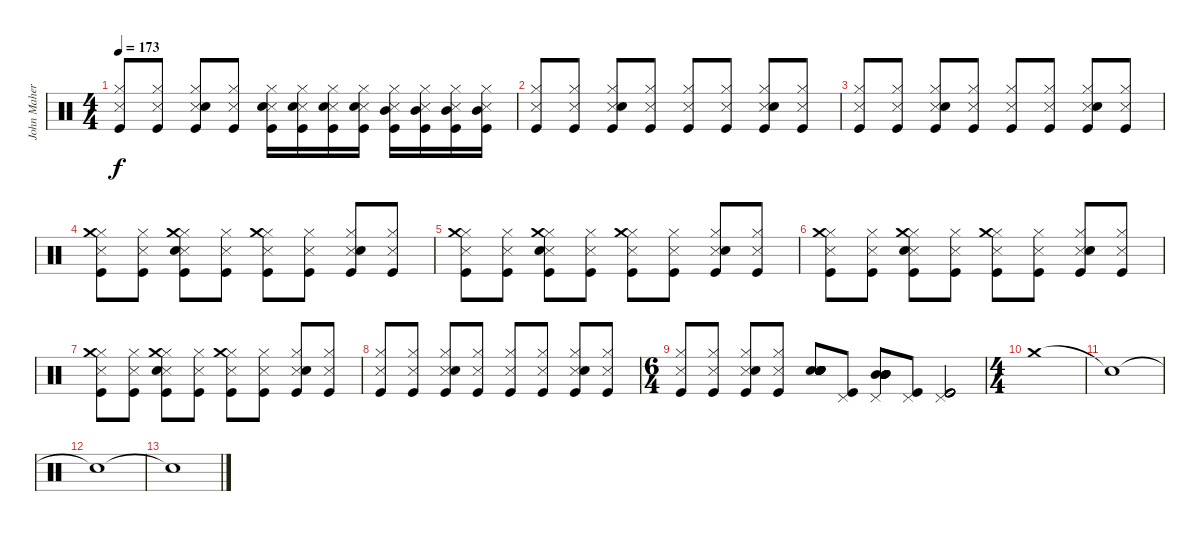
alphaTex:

\track ("John Maher" "John Maher") {instrument percussion}
\staff {score}
\articulation defaults
\ts (4 4)
\tempo 173
\clef neutral
\ks c
("Snare (side stick) 3" "Hi-Hat (closed)" "Kick (hit)").8{dy f} ("Snare (side stick) 3" "Hi-Hat (closed)" "Kick (hit)").8 ("Snare (side stick) 3" "Hi-Hat (closed)" "Snare (hit) 2" "Kick (hit)").8 ("Snare (side stick) 3" "Hi-Hat (closed)" "Kick (hit)").8 ("Snare (side stick) 3" "Hi-Hat (closed)" "Snare (hit) 2" "Kick (hit)").16 ("Snare (side stick) 3" "Hi-Hat (closed)" "Snare (hit) 2" "Kick (hit)").16 ("Snare (side stick) 3" "Hi-Hat (closed)" "Snare (hit) 2" "Kick (hit)").16 ("Snare (side stick) 3" "Hi-Hat (closed)" "Snare (hit) 2" "Kick (hit)").16 ("Snare (side stick) 3" "Hi-Hat (closed)" "Mid Tom (hit)" "Kick (hit)").16 ("Snare (side stick) 3" "Hi-Hat (closed)" "Mid Tom (hit)" "Kick (hit)").16 ("Snare (side stick) 3" "Hi-Hat (closed)" "Mid Tom (hit)" "Kick (hit)").16 ("Snare (side stick) 3" "Hi-Hat (closed)" "Mid Tom (hit)" "Kick (hit)").16 |
("Snare (side stick) 3" "Hi-Hat (closed)" "Kick (hit)").8 ("Snare (side stick) 3" "Hi-Hat (closed)" "Kick (hit)").8 ("Snare (side stick) 3" "Hi-Hat (closed)" "Snare (hit) 2" "Kick (hit)").8 ("Snare (side stick) 3" "Hi-Hat (closed)" "Kick (hit)").8 ("Snare (side stick) 3" "Hi-Hat (closed)" "Kick (hit)").8 ("Snare (side stick) 3" "Hi-Hat (closed)" "Kick (hit)").8 ("Snare (side stick) 3" "Hi-Hat (closed)" "Snare (hit) 2" "Kick (hit)").8 ("Snare (side stick) 3" "Hi-Hat (closed)" "Kick (hit)").8 |
("Snare (side stick) 3" "Hi-Hat (closed)" "Kick (hit)").8 ("Snare (side stick) 3" "Hi-Hat (closed)" "Kick (hit)").8 ("Snare (side stick) 3" "Hi-Hat (closed)" "Snare (hit) 2" "Kick (hit)").8 ("Snare (side stick) 3" "Hi-Hat (closed)" "Kick (hit)").8 ("Snare (side stick) 3" "Hi-Hat (closed)" "Kick (hit)").8 ("Snare (side stick) 3" "Hi-Hat (closed)" "Kick (hit)").8 ("Snare (side stick) 3" "Hi-Hat (closed)" "Snare (hit) 2" "Kick (hit)").8 ("Snare (side stick) 3" "Hi-Hat (closed)" "Kick (hit)").8 |
("Snare (side stick) 3" "Hi-Hat (closed)" "Crash medium (hit)" "Kick (hit)").8 ("Snare (side stick) 3" "Hi-Hat (closed)" "Kick (hit)").8 ("Snare (side stick) 3" "Hi-Hat (closed)" "Crash medium (hit)" "Snare (hit) 2" "Kick (hit)").8 ("Snare (side stick) 3" "Hi-Hat (closed)" "Kick (hit)").8 ("Snare (side stick) 3" "Hi-Hat (closed)" "Crash medium (hit)" "Kick (hit)").8 ("Snare (side stick) 3" "Hi-Hat (closed)" "Kick (hit)").8 ("Snare (side stick) 3" "Hi-Hat (closed)" "Snare (hit) 2" "Kick (hit)").8 ("Snare (side stick) 3" "Hi-Hat (closed)" "Kick (hit)").8 |
("Snare (side stick) 3" "Hi-Hat (closed)" "Crash medium (hit)" "Kick (hit)").8 ("Snare (side stick) 3" "Hi-Hat (closed)" "Kick (hit)").8 ("Snare (side stick) 3" "Hi-Hat (closed)" "Crash medium (hit)" "Snare (hit) 2" "Kick (hit)").8 ("Snare (side stick) 3" "Hi-Hat (closed)" "Kick (hit)").8 ("Snare (side stick) 3" "Hi-Hat (closed)" "Crash medium (hit)" "Kick (hit)").8 ("Snare (side stick) 3" "Hi-Hat (closed)" "Kick (hit)").8 ("Snare (side stick) 3" "Hi-Hat (closed)" "Snare (hit) 2" "Kick (hit)").8 ("Snare (side stick) 3" "Hi-Hat (closed)" "Kick (hit)").8 |
("Snare (side stick) 3" "Hi-Hat (closed)" "Crash medium (hit)" "Kick (hit)").8 ("Snare (side stick) 3" "Hi-Hat (closed)" "Kick (hit)").8 ("Snare (side stick) 3" "Hi-Hat (closed)" "Crash medium (hit)" "Snare (hit) 2" "Kick (hit)").8 ("Snare (side stick) 3" "Hi-Hat (closed)" "Kick (hit)").8 ("Snare (side stick) 3" "Hi-Hat (closed)" "Crash medium (hit)" "Kick (hit)").8 ("Snare (side stick) 3" "Hi-Hat (closed)" "Kick (hit)").8 ("Snare (side stick) 3" "Hi-Hat (closed)" "Snare (hit) 2" "Kick (hit)").8 ("Snare (side stick) 3" "Hi-Hat (closed)" "Kick (hit)").8 |
("Snare (side stick) 3" "Hi-Hat (closed)" "Crash medium (hit)" "Kick (hit)").8 ("Snare (side stick) 3" "Hi-Hat (closed)" "Kick (hit)").8 ("Snare (side stick) 3" "Hi-Hat (closed)" "Crash medium (hit)" "Snare (hit) 2" "Kick (hit)").8 ("Snare (side stick) 3" "Hi-Hat (closed)" "Kick (hit)").8 ("Snare (side stick) 3" "Hi-Hat (closed)" "Crash medium (hit)" "Kick (hit)").8 ("Snare (side stick) 3" "Hi-Hat (closed)" "Kick (hit)").8 ("Snare (side stick) 3" "Hi-Hat (closed)" "Snare (hit) 2" "Kick (hit)").8 ("Snare (side stick) 3" "Hi-Hat (closed)" "Kick (hit)").8 |
("Snare (side stick) 3" "Hi-Hat (closed)" "Kick (hit)").8 ("Snare (side stick) 3" "Hi-Hat (closed)" "Kick (hit)").8 ("Snare (side stick) 3" "Hi-Hat (closed)" "Snare (hit) 2" "Kick (hit)").8 ("Snare (side stick) 3" "Hi-Hat (closed)" "Kick (hit)").8 ("Snare (side stick) 3" "Hi-Hat (closed)" "Kick (hit)").8 ("Snare (side stick) 3" "Hi-Hat (closed)" "Kick (hit)").8 ("Snare (side stick) 3" "Hi-Hat (closed)" "Snare (hit) 2" "Kick (hit)").8 ("Snare (side stick) 3" "Hi-Hat (closed)" "Kick (hit)").8 |
\ts (6 4)
("Snare (side stick) 3" "Hi-Hat (closed)" "Kick (hit)").8 ("Snare (side stick) 3" "Hi-Hat (closed)" "Kick (hit)").8 ("Snare (side stick) 3" "Hi-Hat (closed)" "Snare (hit) 2" "Kick (hit)").8 ("Snare (side stick) 3" "Hi-Hat (closed)" "Kick (hit)").8 ("Snare (hit) 2" "Snare (hit) 2" "Snare (hit) 2" "Snare (hit) 2" "Snare (hit) 2" "Snare (hit) 2").8 ("Pedal Hi-Hat (hit)" "Kick (hit)").8 ("Pedal Hi-Hat (hit)" "Mid Tom (hit)" "Mid Tom (hit)" "Mid Tom (hit)" "Mid Tom (hit)" "Mid Tom (hit)").8 ("Pedal Hi-Hat (hit)" "Kick (hit)").8 ("Pedal Hi-Hat (hit)" "Kick (hit)" "Kick (hit)" "Kick (hit)" "Kick (hit)" "Kick (hit)").2 |
\ts (4 4)
"Crash medium (hit)".1 |
"Snare (hit)"{t}.1 |
"Snare (hit)"{t}.1 |
"Snare (hit)"{t}.1
